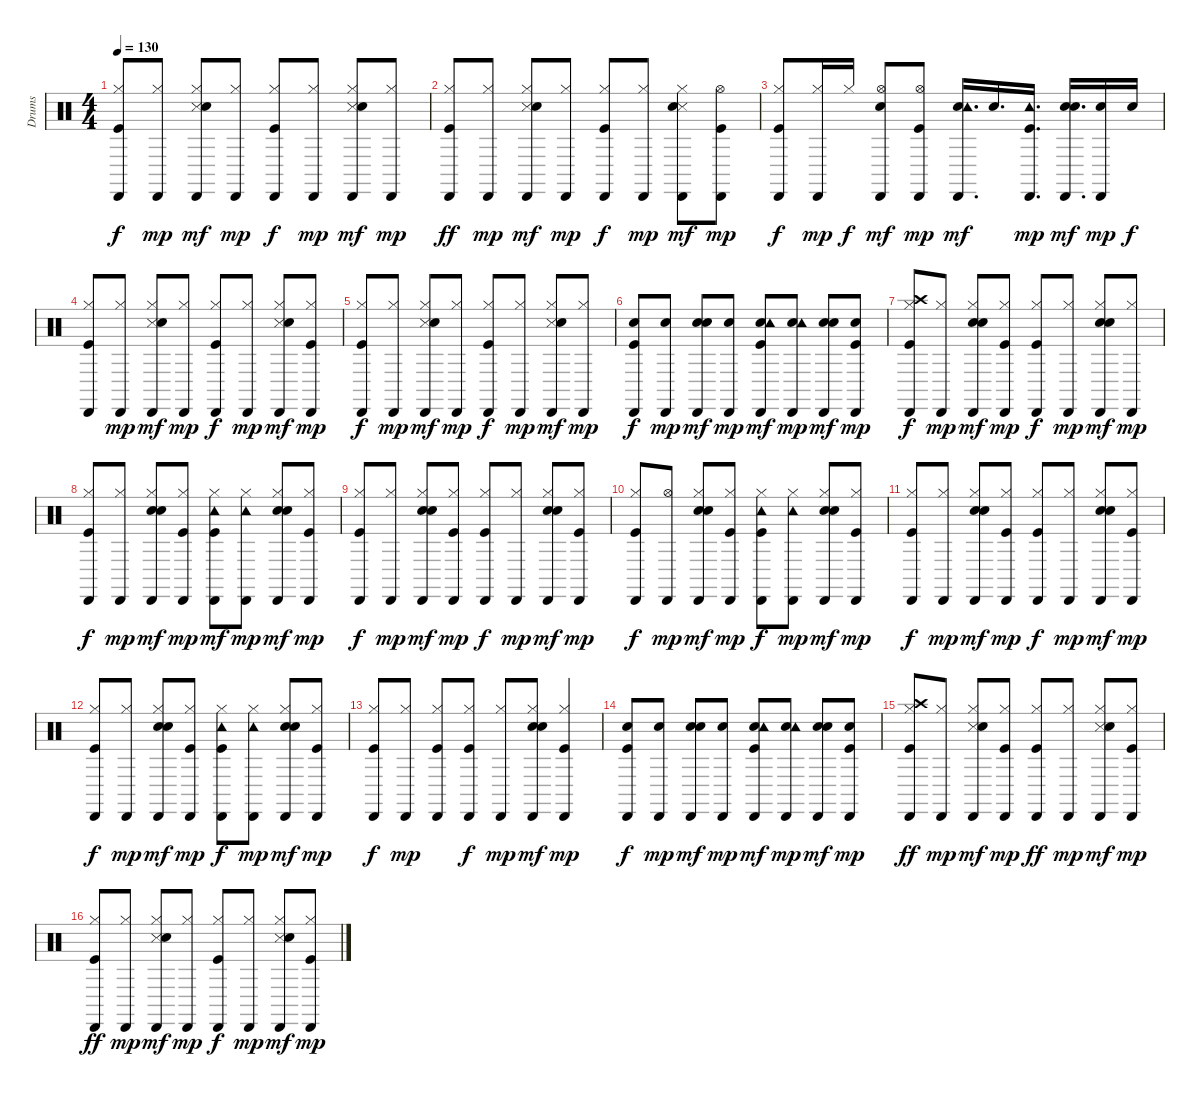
\track ("Drums" "Drums") {instrument percussion}
\staff {score}
\articulation defaults
\ts (4 4)
\tempo 130
\clef neutral
\ks c
("Kick (hit)" "Hi-Hat (closed)" "Cabasa (hit)").8{dy f} ("Hi-Hat (closed)" "Cabasa (hit)").8{dy mp} ("Hi-Hat (closed)" "Snare (side stick) 3" "Hand Clap (hit)" "Cabasa (hit)").8{dy mf} ("Hi-Hat (closed)" "Cabasa (hit)").8{dy mp} ("Kick (hit)" "Hi-Hat (closed)" "Cabasa (hit)").8{dy f} ("Hi-Hat (closed)" "Cabasa (hit)").8{dy mp} ("Hi-Hat (closed)" "Snare (side stick) 3" "Hand Clap (hit)" "Cabasa (hit)").8{dy mf} ("Hi-Hat (closed)" "Cabasa (hit)").8{dy mp} |
("Kick (hit)" "Hi-Hat (closed)" "Cabasa (hit)").8{dy ff} ("Hi-Hat (closed)" "Cabasa (hit)").8{dy mp} ("Hi-Hat (closed)" "Snare (side stick) 3" "Hand Clap (hit)" "Cabasa (hit)").8{dy mf} ("Hi-Hat (closed)" "Cabasa (hit)").8{dy mp} ("Kick (hit)" "Hi-Hat (closed)" "Cabasa (hit)").8{dy f} ("Hi-Hat (closed)" "Cabasa (hit)").8{dy mp} ("Hi-Hat (closed)" "Snare (side stick) 3" "Hand Clap (hit)" "Cabasa (hit)").8{dy mf} ("Kick (hit)" "Hi-Hat (open)" "Cabasa (hit)").8{dy mp} |
("Kick (hit)" "Hi-Hat (closed)" "Cabasa (hit)").8{dy f} ("Hi-Hat (closed)" "Cabasa (hit)").16{dy mp} "Hi-Hat (closed)".16{dy f} ("Hi-Hat (open)" "Hand Clap (hit)" "Cabasa (hit)").8{dy mf} ("Kick (hit)" "Hi-Hat (open)" "Cabasa (hit)").8{dy mp} ("Snare (hit) 2" "Tambourine (hit)" "Cabasa (hit)").16{d dy mf} "Snare (hit) 2".16{d} ("Kick (hit)" "Tambourine (hit)" "Cabasa (hit)").16{d dy mp} ("Snare (hit) 2" "Hand Clap (hit)" "Cabasa (hit)").16{d dy mf} ("Snare (hit) 2" "Cabasa (hit)").16{dy mp} "Snare (hit) 2".16{dy f} |
("Kick (hit)" "Hi-Hat (closed)" "Cabasa (hit)").8 ("Hi-Hat (closed)" "Cabasa (hit)").8{dy mp} ("Hi-Hat (closed)" "Snare (side stick) 3" "Hand Clap (hit)" "Cabasa (hit)").8{dy mf} ("Hi-Hat (closed)" "Cabasa (hit)").8{dy mp} ("Kick (hit)" "Hi-Hat (closed)" "Cabasa (hit)").8{dy f} ("Hi-Hat (closed)" "Cabasa (hit)").8{dy mp} ("Hi-Hat (closed)" "Snare (side stick) 3" "Hand Clap (hit)" "Cabasa (hit)").8{dy mf} ("Kick (hit)" "Hi-Hat (closed)" "Cabasa (hit)").8{dy mp} |
("Kick (hit)" "Hi-Hat (closed)" "Cabasa (hit)").8{dy f} ("Hi-Hat (closed)" "Cabasa (hit)").8{dy mp} ("Hi-Hat (closed)" "Snare (side stick) 3" "Hand Clap (hit)" "Cabasa (hit)").8{dy mf} ("Hi-Hat (closed)" "Cabasa (hit)").8{dy mp} ("Kick (hit)" "Hi-Hat (closed)" "Cabasa (hit)").8{dy f} ("Hi-Hat (closed)" "Cabasa (hit)").8{dy mp} ("Hi-Hat (closed)" "Snare (side stick) 3" "Hand Clap (hit)" "Cabasa (hit)").8{dy mf} ("Hi-Hat (closed)" "Cabasa (hit)").8{dy mp} |
("Kick (hit)" "Snare (hit) 2" "Cabasa (hit)").8{dy f} ("Snare (hit) 2" "Cabasa (hit)").8{dy mp} ("Snare (hit) 2" "Hand Clap (hit)" "Cabasa (hit)").8{dy mf} ("Snare (hit) 2" "Cabasa (hit)").8{dy mp} ("Kick (hit)" "Snare (hit) 2" "Tambourine (hit)" "Cabasa (hit)").8{dy mf} ("Snare (hit) 2" "Tambourine (hit)" "Cabasa (hit)").8{dy mp} ("Snare (hit) 2" "Hand Clap (hit)" "Cabasa (hit)").8{dy mf} ("Kick (hit)" "Snare (hit) 2" "Cabasa (hit)").8{dy mp} |
("Kick (hit)" "Hi-Hat (closed)" "Crash high (hit)" "Cabasa (hit)").8{dy f} ("Hi-Hat (closed)" "Cabasa (hit)").8{dy mp} ("Snare (hit) 2" "Hi-Hat (closed)" "Hand Clap (hit)" "Cabasa (hit)").8{dy mf} ("Kick (hit)" "Hi-Hat (closed)" "Cabasa (hit)").8{dy mp} ("Kick (hit)" "Hi-Hat (closed)" "Cabasa (hit)").8{dy f} ("Hi-Hat (closed)" "Cabasa (hit)").8{dy mp} ("Snare (hit) 2" "Hi-Hat (closed)" "Hand Clap (hit)" "Cabasa (hit)").8{dy mf} ("Hi-Hat (closed)" "Cabasa (hit)").8{dy mp} |
("Kick (hit)" "Hi-Hat (closed)" "Cabasa (hit)").8{dy f} ("Hi-Hat (closed)" "Cabasa (hit)").8{dy mp} ("Snare (hit) 2" "Hi-Hat (closed)" "Hand Clap (hit)" "Cabasa (hit)").8{dy mf} ("Kick (hit)" "Hi-Hat (closed)" "Cabasa (hit)").8{dy mp} ("Kick (hit)" "Hi-Hat (closed)" "Tambourine (hit)" "Cabasa (hit)").8{dy mf} ("Hi-Hat (closed)" "Tambourine (hit)" "Cabasa (hit)").8{dy mp} ("Snare (hit) 2" "Hi-Hat (closed)" "Hand Clap (hit)" "Cabasa (hit)").8{dy mf} ("Kick (hit)" "Hi-Hat (closed)" "Cabasa (hit)").8{dy mp} |
("Kick (hit)" "Hi-Hat (closed)" "Cabasa (hit)").8{dy f} ("Hi-Hat (closed)" "Cabasa (hit)").8{dy mp} ("Snare (hit) 2" "Hi-Hat (closed)" "Hand Clap (hit)" "Cabasa (hit)").8{dy mf} ("Kick (hit)" "Hi-Hat (closed)" "Cabasa (hit)").8{dy mp} ("Kick (hit)" "Hi-Hat (closed)" "Cabasa (hit)").8{dy f} ("Hi-Hat (closed)" "Cabasa (hit)").8{dy mp} ("Snare (hit) 2" "Hi-Hat (closed)" "Hand Clap (hit)" "Cabasa (hit)").8{dy mf} ("Kick (hit)" "Hi-Hat (closed)" "Cabasa (hit)").8{dy mp} |
("Kick (hit)" "Hi-Hat (closed)" "Cabasa (hit)").8{dy f} ("Hi-Hat (open)" "Cabasa (hit)").8{dy mp} ("Snare (hit) 2" "Hi-Hat (closed)" "Hand Clap (hit)" "Cabasa (hit)").8{dy mf} ("Kick (hit)" "Hi-Hat (closed)" "Cabasa (hit)").8{dy mp} ("Kick (hit)" "Hi-Hat (closed)" "Tambourine (hit)" "Cabasa (hit)").8{dy f} ("Hi-Hat (closed)" "Tambourine (hit)" "Cabasa (hit)").8{dy mp} ("Snare (hit) 2" "Hi-Hat (closed)" "Hand Clap (hit)" "Cabasa (hit)").8{dy mf} ("Kick (hit)" "Hi-Hat (closed)" "Cabasa (hit)").8{dy mp} |
("Kick (hit)" "Hi-Hat (closed)" "Cabasa (hit)").8{dy f} ("Hi-Hat (closed)" "Cabasa (hit)").8{dy mp} ("Snare (hit) 2" "Hi-Hat (closed)" "Hand Clap (hit)" "Cabasa (hit)").8{dy mf} ("Kick (hit)" "Hi-Hat (closed)" "Cabasa (hit)").8{dy mp} ("Kick (hit)" "Hi-Hat (closed)" "Cabasa (hit)").8{dy f} ("Hi-Hat (closed)" "Cabasa (hit)").8{dy mp} ("Snare (hit) 2" "Hi-Hat (closed)" "Hand Clap (hit)" "Cabasa (hit)").8{dy mf} ("Kick (hit)" "Hi-Hat (closed)" "Cabasa (hit)").8{dy mp} |
("Kick (hit)" "Hi-Hat (closed)" "Cabasa (hit)").8{dy f} ("Hi-Hat (closed)" "Cabasa (hit)").8{dy mp} ("Snare (hit) 2" "Hi-Hat (closed)" "Hand Clap (hit)" "Cabasa (hit)").8{dy mf} ("Kick (hit)" "Hi-Hat (closed)" "Cabasa (hit)").8{dy mp} ("Kick (hit)" "Hi-Hat (closed)" "Tambourine (hit)" "Cabasa (hit)").8{dy f} ("Hi-Hat (closed)" "Tambourine (hit)" "Cabasa (hit)").8{dy mp} ("Snare (hit) 2" "Hi-Hat (closed)" "Hand Clap (hit)" "Cabasa (hit)").8{dy mf} ("Kick (hit)" "Hi-Hat (closed)" "Cabasa (hit)").8{dy mp} |
("Kick (hit)" "Hi-Hat (closed)" "Cabasa (hit)").8{dy f} ("Hi-Hat (closed)" "Cabasa (hit)").8{dy mp} ("Kick (hit)" "Hi-Hat (closed)" "Cabasa (hit)").8 ("Kick (hit)" "Hi-Hat (closed)" "Cabasa (hit)").8{dy f} ("Hi-Hat (closed)" "Cabasa (hit)").8{dy mp} ("Snare (hit) 2" "Hi-Hat (closed)" "Hand Clap (hit)" "Cabasa (hit)").8{dy mf} ("Kick (hit)" "Hi-Hat (closed)" "Cabasa (hit)").4{dy mp} |
("Kick (hit)" "Snare (hit) 2" "Cabasa (hit)").8{dy f} ("Snare (hit) 2" "Cabasa (hit)").8{dy mp} ("Snare (hit) 2" "Hand Clap (hit)" "Cabasa (hit)").8{dy mf} ("Snare (hit) 2" "Cabasa (hit)").8{dy mp} ("Kick (hit)" "Snare (hit) 2" "Tambourine (hit)" "Cabasa (hit)").8{dy mf} ("Snare (hit) 2" "Tambourine (hit)" "Cabasa (hit)").8{dy mp} ("Snare (hit) 2" "Hand Clap (hit)" "Cabasa (hit)").8{dy mf} ("Kick (hit)" "Snare (hit) 2" "Cabasa (hit)").8{dy mp} |
("Kick (hit)" "Hi-Hat (closed)" "Crash high (hit)" "Cabasa (hit)").8{dy ff} ("Hi-Hat (closed)" "Cabasa (hit)").8{dy mp} ("Hi-Hat (closed)" "Snare (side stick) 3" "Hand Clap (hit)" "Cabasa (hit)").8{dy mf} ("Kick (hit)" "Hi-Hat (closed)" "Cabasa (hit)").8{dy mp} ("Kick (hit)" "Hi-Hat (closed)" "Cabasa (hit)").8{dy ff} ("Hi-Hat (closed)" "Cabasa (hit)").8{dy mp} ("Hi-Hat (closed)" "Snare (side stick) 3" "Hand Clap (hit)" "Cabasa (hit)").8{dy mf} ("Kick (hit)" "Hi-Hat (closed)" "Cabasa (hit)").8{dy mp} |
("Kick (hit)" "Hi-Hat (closed)" "Cabasa (hit)").8{dy ff} ("Hi-Hat (closed)" "Cabasa (hit)").8{dy mp} ("Hi-Hat (closed)" "Snare (side stick) 3" "Hand Clap (hit)" "Cabasa (hit)").8{dy mf} ("Hi-Hat (closed)" "Cabasa (hit)").8{dy mp} ("Kick (hit)" "Hi-Hat (closed)" "Cabasa (hit)").8{dy f} ("Hi-Hat (closed)" "Cabasa (hit)").8{dy mp} ("Hi-Hat (closed)" "Snare (side stick) 3" "Hand Clap (hit)" "Cabasa (hit)").8{dy mf} ("Kick (hit)" "Hi-Hat (closed)" "Cabasa (hit)").8{dy mp}
